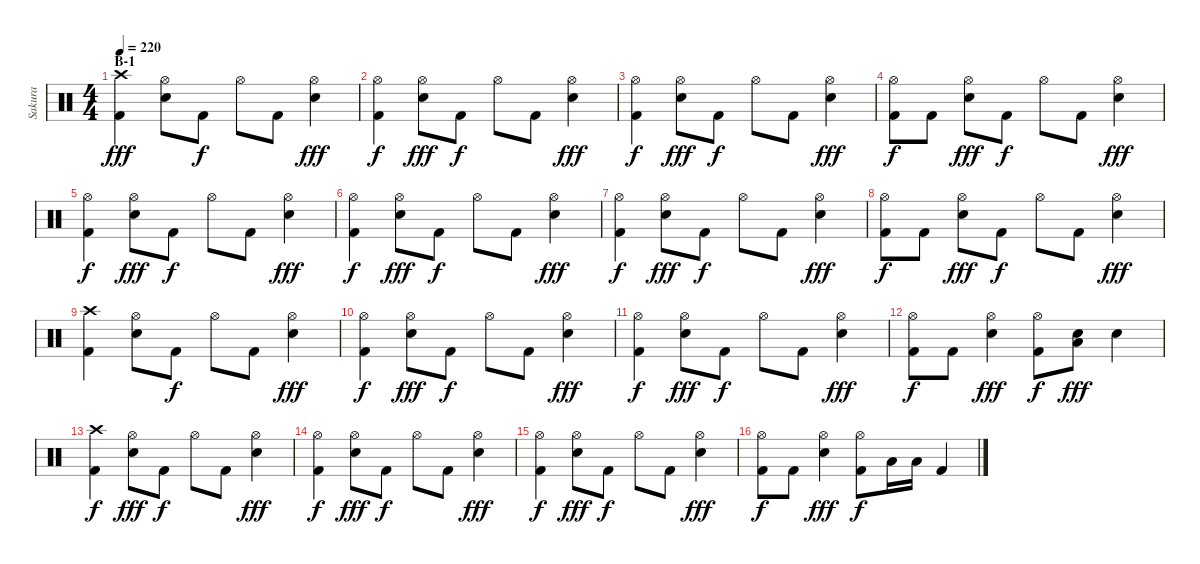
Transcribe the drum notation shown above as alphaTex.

\track ("Sakura" "Sakura") {instrument percussion}
\staff {score}
\articulation defaults
\ts (4 4)
\section ("" "B-1")
\tempo 220
\clef neutral
\ks c
("Crash high (hit)" "Kick (hit) 2").4{dy fff} ("Hi-Hat (open)" "Electric Snare (hit)").8 "Kick (hit) 2".8{dy f} "Hi-Hat (open)".8 "Kick (hit) 2".8 ("Hi-Hat (open)" "Electric Snare (hit)").4{dy fff} |
("Hi-Hat (open)" "Kick (hit) 2").4{dy f} ("Hi-Hat (open)" "Electric Snare (hit)").8{dy fff} "Kick (hit) 2".8{dy f} "Hi-Hat (open)".8 "Kick (hit) 2".8 ("Hi-Hat (open)" "Electric Snare (hit)").4{dy fff} |
("Hi-Hat (open)" "Kick (hit) 2").4{dy f} ("Hi-Hat (open)" "Electric Snare (hit)").8{dy fff} "Kick (hit) 2".8{dy f} "Hi-Hat (open)".8 "Kick (hit) 2".8 ("Hi-Hat (open)" "Electric Snare (hit)").4{dy fff} |
("Hi-Hat (open)" "Kick (hit) 2").8{dy f} "Kick (hit) 2".8 ("Hi-Hat (open)" "Electric Snare (hit)").8{dy fff} "Kick (hit) 2".8{dy f} "Hi-Hat (open)".8 "Kick (hit) 2".8 ("Hi-Hat (open)" "Electric Snare (hit)").4{dy fff} |
("Hi-Hat (open)" "Kick (hit) 2").4{dy f} ("Hi-Hat (open)" "Electric Snare (hit)").8{dy fff} "Kick (hit) 2".8{dy f} "Hi-Hat (open)".8 "Kick (hit) 2".8 ("Hi-Hat (open)" "Electric Snare (hit)").4{dy fff} |
("Hi-Hat (open)" "Kick (hit) 2").4{dy f} ("Hi-Hat (open)" "Electric Snare (hit)").8{dy fff} "Kick (hit) 2".8{dy f} "Hi-Hat (open)".8 "Kick (hit) 2".8 ("Hi-Hat (open)" "Electric Snare (hit)").4{dy fff} |
("Hi-Hat (open)" "Kick (hit) 2").4{dy f} ("Hi-Hat (open)" "Electric Snare (hit)").8{dy fff} "Kick (hit) 2".8{dy f} "Hi-Hat (open)".8 "Kick (hit) 2".8 ("Hi-Hat (open)" "Electric Snare (hit)").4{dy fff} |
("Hi-Hat (open)" "Kick (hit) 2").8{dy f} "Kick (hit) 2".8 ("Hi-Hat (open)" "Electric Snare (hit)").8{dy fff} "Kick (hit) 2".8{dy f} "Hi-Hat (open)".8 "Kick (hit) 2".8 ("Hi-Hat (open)" "Electric Snare (hit)").4{dy fff} |
("Crash high (hit)" "Kick (hit) 2").4 ("Hi-Hat (open)" "Electric Snare (hit)").8 "Kick (hit) 2".8{dy f} "Hi-Hat (open)".8 "Kick (hit) 2".8 ("Hi-Hat (open)" "Electric Snare (hit)").4{dy fff} |
("Hi-Hat (open)" "Kick (hit) 2").4{dy f} ("Hi-Hat (open)" "Electric Snare (hit)").8{dy fff} "Kick (hit) 2".8{dy f} "Hi-Hat (open)".8 "Kick (hit) 2".8 ("Hi-Hat (open)" "Electric Snare (hit)").4{dy fff} |
("Hi-Hat (open)" "Kick (hit) 2").4{dy f} ("Hi-Hat (open)" "Electric Snare (hit)").8{dy fff} "Kick (hit) 2".8{dy f} "Hi-Hat (open)".8 "Kick (hit) 2".8 ("Hi-Hat (open)" "Electric Snare (hit)").4{dy fff} |
("Hi-Hat (open)" "Kick (hit) 2").8{dy f} "Kick (hit) 2".8 ("Hi-Hat (open)" "Electric Snare (hit)").4{dy fff} ("Hi-Hat (open)" "Kick (hit) 2").8{dy f} ("Electric Snare (hit)" "Low Tom (hit)").8{dy fff} "Electric Snare (hit)".4 |
("Crash high (hit)" "Kick (hit) 2").4{dy f} ("Hi-Hat (open)" "Electric Snare (hit)").8{dy fff} "Kick (hit) 2".8{dy f} "Hi-Hat (open)".8 "Kick (hit) 2".8 ("Hi-Hat (open)" "Electric Snare (hit)").4{dy fff} |
("Hi-Hat (open)" "Kick (hit) 2").4{dy f} ("Hi-Hat (open)" "Electric Snare (hit)").8{dy fff} "Kick (hit) 2".8{dy f} "Hi-Hat (open)".8 "Kick (hit) 2".8 ("Hi-Hat (open)" "Electric Snare (hit)").4{dy fff} |
("Hi-Hat (open)" "Kick (hit) 2").4{dy f} ("Hi-Hat (open)" "Electric Snare (hit)").8{dy fff} "Kick (hit) 2".8{dy f} "Hi-Hat (open)".8 "Kick (hit) 2".8 ("Hi-Hat (open)" "Electric Snare (hit)").4{dy fff} |
("Hi-Hat (open)" "Kick (hit) 2").8{dy f} "Kick (hit) 2".8 ("Hi-Hat (open)" "Electric Snare (hit)").4{dy fff} ("Hi-Hat (open)" "Kick (hit) 2").8{dy f} "Low Tom (hit)".16 "Low Tom (hit)".16 "Kick (hit) 2".4
